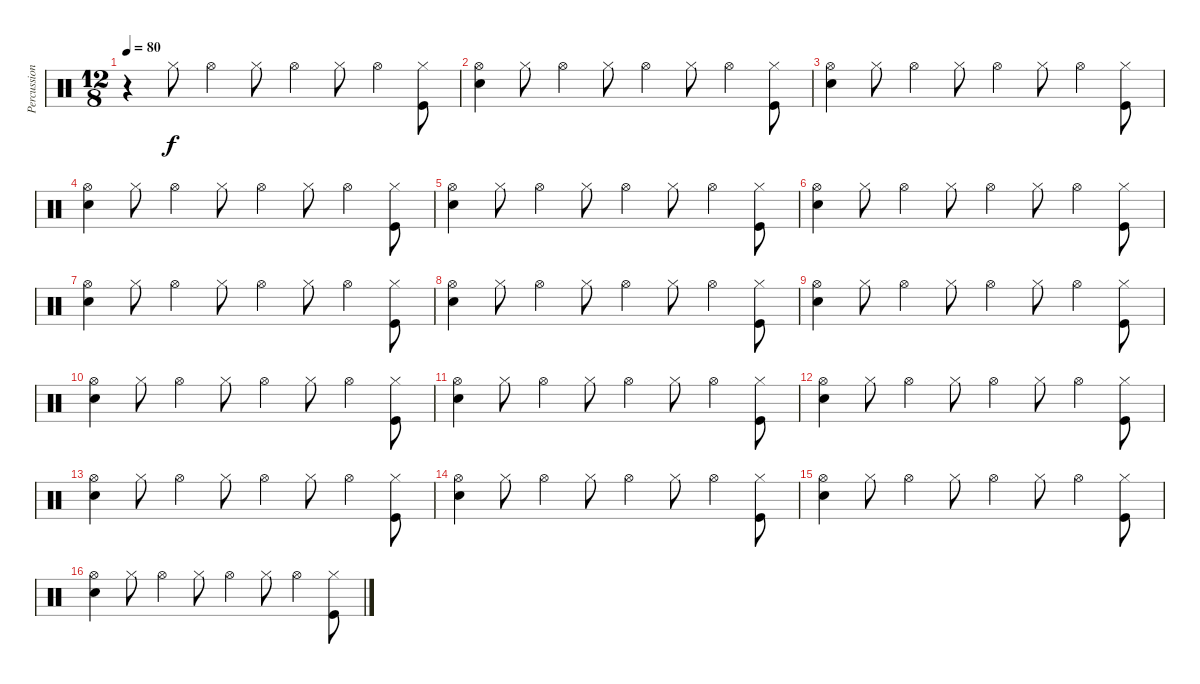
\track ("Percussion" "Percussion") {instrument percussion}
\staff {score}
\articulation defaults
\ts (12 8)
\tempo 80
\clef neutral
\ks c
r.4{dy f} "Hi-Hat (closed)".8 "Hi-Hat (open)".4 "Hi-Hat (closed)".8 "Hi-Hat (open)".4 "Hi-Hat (closed)".8 "Hi-Hat (open)".4 ("Hi-Hat (closed)" "Kick (hit)").8 |
("Hi-Hat (open)" "Snare (hit) 2").4 "Hi-Hat (closed)".8 "Hi-Hat (open)".4 "Hi-Hat (closed)".8 "Hi-Hat (open)".4 "Hi-Hat (closed)".8 "Hi-Hat (open)".4 ("Hi-Hat (closed)" "Kick (hit)").8 |
("Hi-Hat (open)" "Snare (hit) 2").4 "Hi-Hat (closed)".8 "Hi-Hat (open)".4 "Hi-Hat (closed)".8 "Hi-Hat (open)".4 "Hi-Hat (closed)".8 "Hi-Hat (open)".4 ("Hi-Hat (closed)" "Kick (hit)").8 |
("Hi-Hat (open)" "Snare (hit) 2").4 "Hi-Hat (closed)".8 "Hi-Hat (open)".4 "Hi-Hat (closed)".8 "Hi-Hat (open)".4 "Hi-Hat (closed)".8 "Hi-Hat (open)".4 ("Hi-Hat (closed)" "Kick (hit)").8 |
("Hi-Hat (open)" "Snare (hit) 2").4 "Hi-Hat (closed)".8 "Hi-Hat (open)".4 "Hi-Hat (closed)".8 "Hi-Hat (open)".4 "Hi-Hat (closed)".8 "Hi-Hat (open)".4 ("Hi-Hat (closed)" "Kick (hit)").8 |
("Hi-Hat (open)" "Snare (hit) 2").4 "Hi-Hat (closed)".8 "Hi-Hat (open)".4 "Hi-Hat (closed)".8 "Hi-Hat (open)".4 "Hi-Hat (closed)".8 "Hi-Hat (open)".4 ("Hi-Hat (closed)" "Kick (hit)").8 |
("Hi-Hat (open)" "Snare (hit) 2").4 "Hi-Hat (closed)".8 "Hi-Hat (open)".4 "Hi-Hat (closed)".8 "Hi-Hat (open)".4 "Hi-Hat (closed)".8 "Hi-Hat (open)".4 ("Hi-Hat (closed)" "Kick (hit)").8 |
("Hi-Hat (open)" "Snare (hit) 2").4 "Hi-Hat (closed)".8 "Hi-Hat (open)".4 "Hi-Hat (closed)".8 "Hi-Hat (open)".4 "Hi-Hat (closed)".8 "Hi-Hat (open)".4 ("Hi-Hat (closed)" "Kick (hit)").8 |
("Hi-Hat (open)" "Snare (hit) 2").4 "Hi-Hat (closed)".8 "Hi-Hat (open)".4 "Hi-Hat (closed)".8 "Hi-Hat (open)".4 "Hi-Hat (closed)".8 "Hi-Hat (open)".4 ("Hi-Hat (closed)" "Kick (hit)").8 |
("Hi-Hat (open)" "Snare (hit) 2").4 "Hi-Hat (closed)".8 "Hi-Hat (open)".4 "Hi-Hat (closed)".8 "Hi-Hat (open)".4 "Hi-Hat (closed)".8 "Hi-Hat (open)".4 ("Hi-Hat (closed)" "Kick (hit)").8 |
("Hi-Hat (open)" "Snare (hit) 2").4 "Hi-Hat (closed)".8 "Hi-Hat (open)".4 "Hi-Hat (closed)".8 "Hi-Hat (open)".4 "Hi-Hat (closed)".8 "Hi-Hat (open)".4 ("Hi-Hat (closed)" "Kick (hit)").8 |
("Hi-Hat (open)" "Snare (hit) 2").4 "Hi-Hat (closed)".8 "Hi-Hat (open)".4 "Hi-Hat (closed)".8 "Hi-Hat (open)".4 "Hi-Hat (closed)".8 "Hi-Hat (open)".4 ("Hi-Hat (closed)" "Kick (hit)").8 |
("Hi-Hat (open)" "Snare (hit) 2").4 "Hi-Hat (closed)".8 "Hi-Hat (open)".4 "Hi-Hat (closed)".8 "Hi-Hat (open)".4 "Hi-Hat (closed)".8 "Hi-Hat (open)".4 ("Hi-Hat (closed)" "Kick (hit)").8 |
("Hi-Hat (open)" "Snare (hit) 2").4 "Hi-Hat (closed)".8 "Hi-Hat (open)".4 "Hi-Hat (closed)".8 "Hi-Hat (open)".4 "Hi-Hat (closed)".8 "Hi-Hat (open)".4 ("Hi-Hat (closed)" "Kick (hit)").8 |
("Hi-Hat (open)" "Snare (hit) 2").4 "Hi-Hat (closed)".8 "Hi-Hat (open)".4 "Hi-Hat (closed)".8 "Hi-Hat (open)".4 "Hi-Hat (closed)".8 "Hi-Hat (open)".4 ("Hi-Hat (closed)" "Kick (hit)").8 |
("Hi-Hat (open)" "Snare (hit) 2").4 "Hi-Hat (closed)".8 "Hi-Hat (open)".4 "Hi-Hat (closed)".8 "Hi-Hat (open)".4 "Hi-Hat (closed)".8 "Hi-Hat (open)".4 ("Hi-Hat (closed)" "Kick (hit)").8
